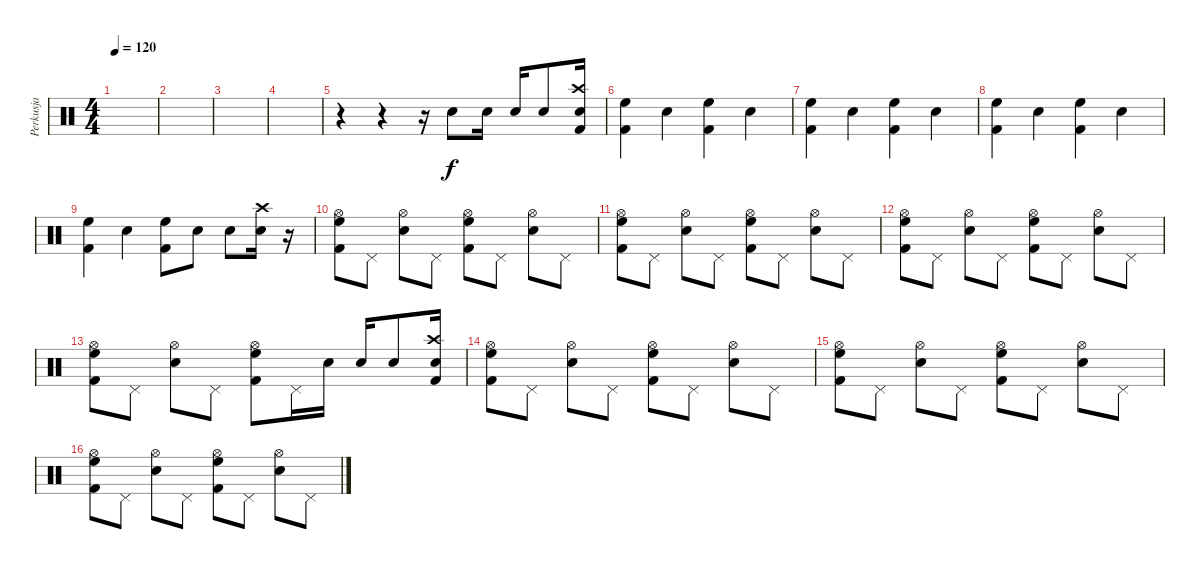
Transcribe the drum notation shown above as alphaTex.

\track ("Perkusja" "Perkusja") {instrument percussion}
\staff {score}
\articulation defaults
\ts (4 4)
\tempo 120
\clef neutral
\ks c
|
|
|
|
r.4 r.4 r.16 "Snare (hit) 2".8 "Snare (hit) 2".16 "Snare (hit) 2".16 "Snare (hit) 2".8 ("Crash high (hit)" "Snare (hit) 2" "Kick (hit) 2").16 |
("High Floor Tom (hit)" "Kick (hit) 2").4 "Snare (hit) 2".4 ("High Floor Tom (hit)" "Kick (hit) 2").4 "Snare (hit) 2".4 |
("High Floor Tom (hit)" "Kick (hit) 2").4 "Snare (hit) 2".4 ("High Floor Tom (hit)" "Kick (hit) 2").4 "Snare (hit) 2".4 |
("High Floor Tom (hit)" "Kick (hit) 2").4 "Snare (hit) 2".4 ("High Floor Tom (hit)" "Kick (hit) 2").4 "Snare (hit) 2".4 |
("High Floor Tom (hit)" "Kick (hit) 2").4 "Snare (hit) 2".4 ("High Floor Tom (hit)" "Kick (hit) 2").8 "Snare (hit) 2".8 "Snare (hit) 2".8 ("Crash high (hit)" "Snare (hit) 2").16 r.16 |
("Hi-Hat (open)" "High Floor Tom (hit)" "Kick (hit) 2").8 "Pedal Hi-Hat (hit)".8 ("Hi-Hat (open)" "Snare (hit) 2").8 "Pedal Hi-Hat (hit)".8 ("Hi-Hat (open)" "High Floor Tom (hit)" "Kick (hit) 2").8 "Pedal Hi-Hat (hit)".8 ("Hi-Hat (open)" "Snare (hit) 2").8 "Pedal Hi-Hat (hit)".8 |
("Hi-Hat (open)" "High Floor Tom (hit)" "Kick (hit) 2").8 "Pedal Hi-Hat (hit)".8 ("Hi-Hat (open)" "Snare (hit) 2").8 "Pedal Hi-Hat (hit)".8 ("Hi-Hat (open)" "High Floor Tom (hit)" "Kick (hit) 2").8 "Pedal Hi-Hat (hit)".8 ("Hi-Hat (open)" "Snare (hit) 2").8 "Pedal Hi-Hat (hit)".8 |
("Hi-Hat (open)" "High Floor Tom (hit)" "Kick (hit) 2").8 "Pedal Hi-Hat (hit)".8 ("Hi-Hat (open)" "Snare (hit) 2").8 "Pedal Hi-Hat (hit)".8 ("Hi-Hat (open)" "High Floor Tom (hit)" "Kick (hit) 2").8 "Pedal Hi-Hat (hit)".8 ("Hi-Hat (open)" "Snare (hit) 2").8 "Pedal Hi-Hat (hit)".8 |
("Hi-Hat (open)" "High Floor Tom (hit)" "Kick (hit) 2").8 "Pedal Hi-Hat (hit)".8 ("Hi-Hat (open)" "Snare (hit) 2").8 "Pedal Hi-Hat (hit)".8 ("Hi-Hat (open)" "High Floor Tom (hit)" "Kick (hit) 2").8 "Pedal Hi-Hat (hit)".16 "Snare (hit) 2".16 "Snare (hit) 2".16 "Snare (hit) 2".8 ("Crash high (hit)" "Snare (hit) 2" "Kick (hit) 2").16 |
("Hi-Hat (open)" "High Floor Tom (hit)" "Kick (hit) 2").8 "Pedal Hi-Hat (hit)".8 ("Hi-Hat (open)" "Snare (hit) 2").8 "Pedal Hi-Hat (hit)".8 ("Hi-Hat (open)" "High Floor Tom (hit)" "Kick (hit) 2").8 "Pedal Hi-Hat (hit)".8 ("Hi-Hat (open)" "Snare (hit) 2").8 "Pedal Hi-Hat (hit)".8 |
("Hi-Hat (open)" "High Floor Tom (hit)" "Kick (hit) 2").8 "Pedal Hi-Hat (hit)".8 ("Hi-Hat (open)" "Snare (hit) 2").8 "Pedal Hi-Hat (hit)".8 ("Hi-Hat (open)" "High Floor Tom (hit)" "Kick (hit) 2").8 "Pedal Hi-Hat (hit)".8 ("Hi-Hat (open)" "Snare (hit) 2").8 "Pedal Hi-Hat (hit)".8 |
("Hi-Hat (open)" "High Floor Tom (hit)" "Kick (hit) 2").8 "Pedal Hi-Hat (hit)".8 ("Hi-Hat (open)" "Snare (hit) 2").8 "Pedal Hi-Hat (hit)".8 ("Hi-Hat (open)" "High Floor Tom (hit)" "Kick (hit) 2").8 "Pedal Hi-Hat (hit)".8 ("Hi-Hat (open)" "Snare (hit) 2").8 "Pedal Hi-Hat (hit)".8
